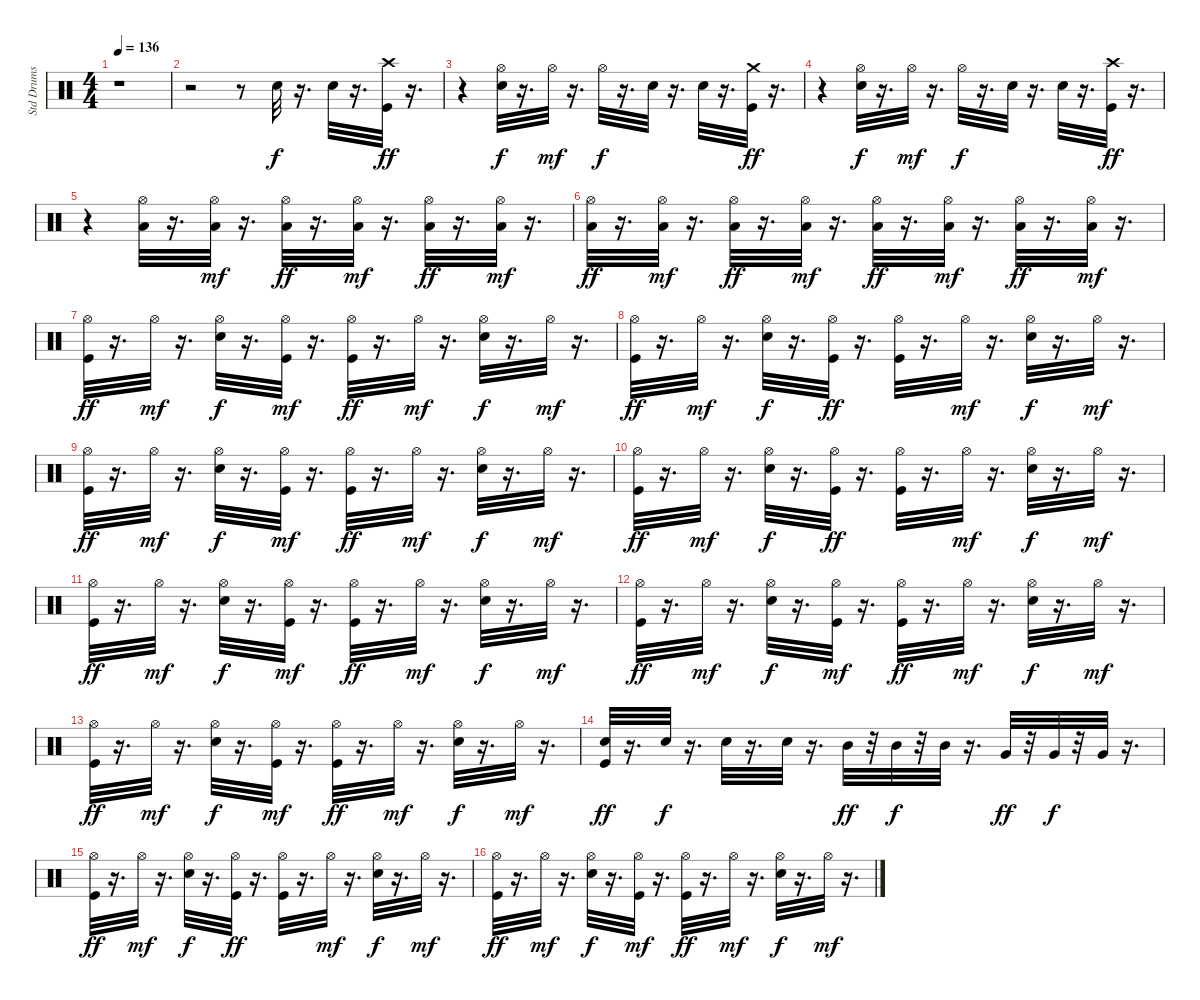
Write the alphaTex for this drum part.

\track ("Std Drums" "Std Drums") {instrument percussion}
\staff {score}
\articulation defaults
\ts (4 4)
\tempo 136
\clef neutral
\ks c
r.1{dy f} |
r.2 r.8 "Snare (hit) 2".32 r.16{d} "Snare (hit) 2".32 r.16{d} ("Kick (hit)" "Crash high (hit)").32{dy ff} r.16{d} |
r.4 ("Snare (hit) 2" "Hi-Hat (open)").32{dy f} r.16{d} "Hi-Hat (open)".32{dy mf} r.16{d} "Hi-Hat (open)".32{dy f} r.16{d} "Snare (hit) 2".32 r.16{d} "Snare (hit) 2".32 r.16{d} ("Kick (hit)" "Crash medium (hit)").32{dy ff} r.16{d} |
r.4 ("Snare (hit) 2" "Hi-Hat (open)").32{dy f} r.16{d} "Hi-Hat (open)".32{dy mf} r.16{d} "Hi-Hat (open)".32{dy f} r.16{d} "Snare (hit) 2".32 r.16{d} "Snare (hit) 2".32 r.16{d} ("Kick (hit)" "Crash high (hit)").32{dy ff} r.16{d} |
r.4 ("Low Floor Tom (hit)" "Hi-Hat (open)").32 r.16{d} ("Hi-Hat (open)" "Low Floor Tom (hit)").32{dy mf} r.16{d} ("Low Floor Tom (hit)" "Hi-Hat (open)").32{dy ff} r.16{d} ("Hi-Hat (open)" "Low Floor Tom (hit)").32{dy mf} r.16{d} ("Hi-Hat (open)" "Low Floor Tom (hit)").32{dy ff} r.16{d} ("Low Floor Tom (hit)" "Hi-Hat (open)").32{dy mf} r.16{d} |
("Low Floor Tom (hit)" "Hi-Hat (open)").32{dy ff} r.16{d} ("Low Floor Tom (hit)" "Hi-Hat (open)").32{dy mf} r.16{d} ("Hi-Hat (open)" "Low Floor Tom (hit)").32{dy ff} r.16{d} ("Low Floor Tom (hit)" "Hi-Hat (open)").32{dy mf} r.16{d} ("Low Floor Tom (hit)" "Hi-Hat (open)").32{dy ff} r.16{d} ("Hi-Hat (open)" "Low Floor Tom (hit)").32{dy mf} r.16{d} ("Hi-Hat (open)" "Low Floor Tom (hit)").32{dy ff} r.16{d} ("Hi-Hat (open)" "Low Floor Tom (hit)").32{dy mf} r.16{d} |
("Kick (hit)" "Hi-Hat (open)").32{dy ff} r.16{d} "Hi-Hat (open)".32{dy mf} r.16{d} ("Snare (hit) 2" "Hi-Hat (open)").32{dy f} r.16{d} ("Kick (hit)" "Hi-Hat (open)").32{dy mf} r.16{d} ("Hi-Hat (open)" "Kick (hit)").32{dy ff} r.16{d} "Hi-Hat (open)".32{dy mf} r.16{d} ("Snare (hit) 2" "Hi-Hat (open)").32{dy f} r.16{d} "Hi-Hat (open)".32{dy mf} r.16{d} |
("Kick (hit)" "Hi-Hat (open)").32{dy ff} r.16{d} "Hi-Hat (open)".32{dy mf} r.16{d} ("Snare (hit) 2" "Hi-Hat (open)").32{dy f} r.16{d} ("Hi-Hat (open)" "Kick (hit)").32{dy ff} r.16{d} ("Kick (hit)" "Hi-Hat (open)").32 r.16{d} "Hi-Hat (open)".32{dy mf} r.16{d} ("Snare (hit) 2" "Hi-Hat (open)").32{dy f} r.16{d} "Hi-Hat (open)".32{dy mf} r.16{d} |
("Hi-Hat (open)" "Kick (hit)").32{dy ff} r.16{d} "Hi-Hat (open)".32{dy mf} r.16{d} ("Hi-Hat (open)" "Snare (hit) 2").32{dy f} r.16{d} ("Kick (hit)" "Hi-Hat (open)").32{dy mf} r.16{d} ("Kick (hit)" "Hi-Hat (open)").32{dy ff} r.16{d} "Hi-Hat (open)".32{dy mf} r.16{d} ("Hi-Hat (open)" "Snare (hit) 2").32{dy f} r.16{d} "Hi-Hat (open)".32{dy mf} r.16{d} |
("Hi-Hat (open)" "Kick (hit)").32{dy ff} r.16{d} "Hi-Hat (open)".32{dy mf} r.16{d} ("Snare (hit) 2" "Hi-Hat (open)").32{dy f} r.16{d} ("Hi-Hat (open)" "Kick (hit)").32{dy ff} r.16{d} ("Kick (hit)" "Hi-Hat (open)").32 r.16{d} "Hi-Hat (open)".32{dy mf} r.16{d} ("Hi-Hat (open)" "Snare (hit) 2").32{dy f} r.16{d} "Hi-Hat (open)".32{dy mf} r.16{d} |
("Hi-Hat (open)" "Kick (hit)").32{dy ff} r.16{d} "Hi-Hat (open)".32{dy mf} r.16{d} ("Snare (hit) 2" "Hi-Hat (open)").32{dy f} r.16{d} ("Kick (hit)" "Hi-Hat (open)").32{dy mf} r.16{d} ("Hi-Hat (open)" "Kick (hit)").32{dy ff} r.16{d} "Hi-Hat (open)".32{dy mf} r.16{d} ("Snare (hit) 2" "Hi-Hat (open)").32{dy f} r.16{d} "Hi-Hat (open)".32{dy mf} r.16{d} |
("Kick (hit)" "Hi-Hat (open)").32{dy ff} r.16{d} "Hi-Hat (open)".32{dy mf} r.16{d} ("Hi-Hat (open)" "Snare (hit) 2").32{dy f} r.16{d} ("Kick (hit)" "Hi-Hat (open)").32{dy mf} r.16{d} ("Kick (hit)" "Hi-Hat (open)").32{dy ff} r.16{d} "Hi-Hat (open)".32{dy mf} r.16{d} ("Snare (hit) 2" "Hi-Hat (open)").32{dy f} r.16{d} "Hi-Hat (open)".32{dy mf} r.16{d} |
("Hi-Hat (open)" "Kick (hit)").32{dy ff} r.16{d} "Hi-Hat (open)".32{dy mf} r.16{d} ("Hi-Hat (open)" "Snare (hit) 2").32{dy f} r.16{d} ("Kick (hit)" "Hi-Hat (open)").32{dy mf} r.16{d} ("Kick (hit)" "Hi-Hat (open)").32{dy ff} r.16{d} "Hi-Hat (open)".32{dy mf} r.16{d} ("Snare (hit) 2" "Hi-Hat (open)").32{dy f} r.16{d} "Hi-Hat (open)".32{dy mf} r.16{d} |
("Kick (hit)" "Snare (hit) 2").32{dy ff} r.16{d} "Snare (hit) 2".32{dy f} r.16{d} "Snare (hit) 2".32 r.16{d} "Snare (hit) 2".32 r.16{d} "Mid Tom (hit)".32{dy ff} r.32 "Mid Tom (hit)".32{dy f} r.32 "Mid Tom (hit)".32 r.16{d} "Very Low Tom (hit)".32{dy ff} r.32 "Very Low Tom (hit)".32{dy f} r.32 "Very Low Tom (hit)".32 r.16{d} |
("Kick (hit)" "Hi-Hat (open)").32{dy ff} r.16{d} "Hi-Hat (open)".32{dy mf} r.16{d} ("Hi-Hat (open)" "Snare (hit) 2").32{dy f} r.16{d} ("Hi-Hat (open)" "Kick (hit)").32{dy ff} r.16{d} ("Hi-Hat (open)" "Kick (hit)").32 r.16{d} "Hi-Hat (open)".32{dy mf} r.16{d} ("Hi-Hat (open)" "Snare (hit) 2").32{dy f} r.16{d} "Hi-Hat (open)".32{dy mf} r.16{d} |
("Hi-Hat (open)" "Kick (hit)").32{dy ff} r.16{d} "Hi-Hat (open)".32{dy mf} r.16{d} ("Hi-Hat (open)" "Snare (hit) 2").32{dy f} r.16{d} ("Kick (hit)" "Hi-Hat (open)").32{dy mf} r.16{d} ("Hi-Hat (open)" "Kick (hit)").32{dy ff} r.16{d} "Hi-Hat (open)".32{dy mf} r.16{d} ("Hi-Hat (open)" "Snare (hit) 2").32{dy f} r.16{d} "Hi-Hat (open)".32{dy mf} r.16{d}
